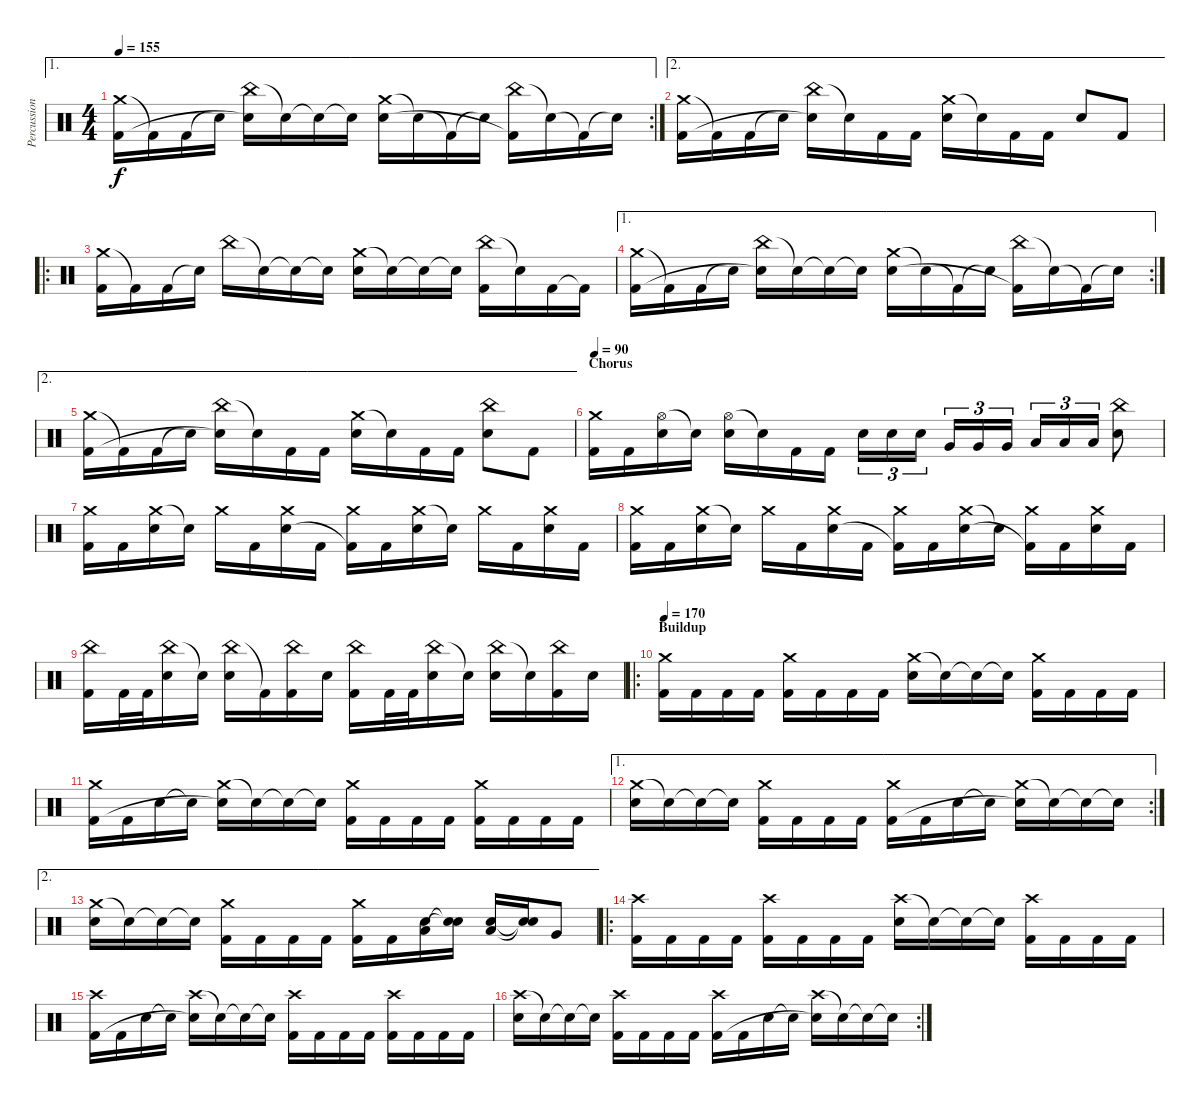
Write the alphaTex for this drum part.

\track ("Percussion" "Percussion") {instrument percussion}
\staff {score}
\articulation defaults
\ae 1
\rc 2
\ts (4 4)
\tempo 155
\clef neutral
\ks c
("Crash medium (hit)" "Kick (hit) 2").16{dy f} "Kick (hit) 2"{t}.16 "Kick (hit) 2".16 "Snare (hit)"{t}.16 ("China (hit)" "Snare (hit)"{t}).16 "Snare (hit)"{t}.16 "Snare (hit)"{t}.16 "Snare (hit)"{t}.16 ("Crash medium (hit)" "Electric Snare (hit)").16 "Snare (hit)"{t}.16 "Kick (hit) 2"{t}.16 "Snare (hit)"{t}.16 ("China (hit)" "Kick (hit) 2"{t}).16 "Snare (hit)"{t}.16 "Kick (hit) 2"{t}.16 "Snare (hit)"{t}.16 |
\ae 2
("Crash medium (hit)" "Kick (hit) 2").16 "Kick (hit) 2"{t}.16 "Kick (hit) 2".16 "Snare (hit)"{t}.16 ("China (hit)" "Snare (hit)"{t}).16 "Snare (hit)"{t}.16 "Kick (hit) 2".16 "Kick (hit) 2".16 ("Crash medium (hit)" "Electric Snare (hit)").16 "Snare (hit)"{t}.16 "Kick (hit) 2".16 "Kick (hit) 2".16 "Electric Snare (hit)".8 "Kick (hit) 2".8 |
\ro
("Crash medium (hit)" "Kick (hit) 2").16 "Kick (hit) 2"{t}.16 "Kick (hit) 2".16 "Snare (hit)"{t}.16 "China (hit)".16 "Snare (hit)"{t}.16 "Electric Snare (hit)"{t}.16 "Electric Snare (hit)"{t}.16 ("Crash medium (hit)" "Electric Snare (hit)").16 "Snare (hit)"{t}.16 "Snare (hit)"{t}.16 "Snare (hit)"{t}.16 ("China (hit)" "Kick (hit) 2").16 "Snare (hit)"{t}.16 "Kick (hit) 2".16 "Kick (hit) 2"{t}.16 |
\ae 1
\rc 2
("Crash medium (hit)" "Kick (hit) 2").16 "Kick (hit) 2"{t}.16 "Kick (hit) 2".16 "Snare (hit)"{t}.16 ("China (hit)" "Snare (hit)"{t}).16 "Snare (hit)"{t}.16 "Snare (hit)"{t}.16 "Snare (hit)"{t}.16 ("Crash medium (hit)" "Electric Snare (hit)").16 "Snare (hit)"{t}.16 "Kick (hit) 2"{t}.16 "Snare (hit)"{t}.16 ("China (hit)" "Kick (hit) 2"{t}).16 "Snare (hit)"{t}.16 "Kick (hit) 2"{t}.16 "Snare (hit)"{t}.16 |
\ae 2
("Crash medium (hit)" "Kick (hit) 2").16 "Kick (hit) 2"{t}.16 "Kick (hit) 2".16 "Snare (hit)"{t}.16 ("China (hit)" "Snare (hit)"{t}).16 "Snare (hit)"{t}.16 "Kick (hit) 2".16 "Kick (hit) 2".16 ("Crash medium (hit)" "Electric Snare (hit)").16 "Snare (hit)"{t}.16 "Kick (hit) 2".16 "Kick (hit) 2".16 ("China (hit)" "Electric Snare (hit)").8 "Kick (hit) 2".8 |
\section ("" "Chorus")
\tempo 90
("Crash medium (hit)" "Kick (hit) 2").16 "Kick (hit) 2".16 ("Hi-Hat (open)" "Electric Snare (hit)").16 "Snare (hit)"{t}.16 ("Hi-Hat (open)" "Electric Snare (hit)").16 "Snare (hit)"{t}.16 "Kick (hit) 2".16 "Kick (hit) 2".16 "Electric Snare (hit)".16{tu (3 2)} "Electric Snare (hit)".16{tu (3 2)} "Electric Snare (hit)".16{tu (3 2)} "Very Low Tom (hit)".16{tu (3 2)} "Very Low Tom (hit)".16{tu (3 2)} "Very Low Tom (hit)".16{tu (3 2)} "Low Floor Tom (hit)".16{tu (3 2)} "Low Floor Tom (hit)".16{tu (3 2)} "Low Floor Tom (hit)".16{tu (3 2)} ("China (hit)" "Electric Snare (hit)").8 |
("Crash medium (hit)" "Kick (hit) 2").16 "Kick (hit) 2".16 ("Crash medium (hit)" "Electric Snare (hit)").16 "Snare (hit)"{t}.16 "Crash medium (hit)".16 "Kick (hit) 2".16 ("Crash medium (hit)" "Electric Snare (hit)").16 "Kick (hit) 2".16 ("Crash medium (hit)" "Kick (hit) 2"{t}).16 "Kick (hit) 2".16 ("Crash medium (hit)" "Electric Snare (hit)").16 "Snare (hit)"{t}.16 "Crash medium (hit)".16 "Kick (hit) 2".16 ("Crash medium (hit)" "Electric Snare (hit)").16 "Kick (hit) 2".16 |
("Crash medium (hit)" "Kick (hit) 2").16 "Kick (hit) 2".16 ("Crash medium (hit)" "Electric Snare (hit)").16 "Snare (hit)"{t}.16 "Crash medium (hit)".16 "Kick (hit) 2".16 ("Crash medium (hit)" "Electric Snare (hit)").16 "Kick (hit) 2".16 ("Crash medium (hit)" "Kick (hit) 2"{t}).16 "Kick (hit) 2".16 ("Crash medium (hit)" "Electric Snare (hit)").16 "Snare (hit)"{t}.16 ("Crash medium (hit)" "Kick (hit) 2"{t}).16 "Kick (hit) 2".16 ("Crash medium (hit)" "Electric Snare (hit)").16 "Kick (hit) 2".16 |
("China (hit)" "Kick (hit) 2").16 "Kick (hit) 2".32 "Kick (hit) 2".32 ("China (hit)" "Electric Snare (hit)").16 "Snare (hit)"{t}.16 ("China (hit)" "Electric Snare (hit)").16 "Kick (hit) 2"{t}.16 ("China (hit)" "Kick (hit) 2").16 "Electric Snare (hit)".16 ("China (hit)" "Kick (hit) 2").16 "Kick (hit) 2".32 "Kick (hit) 2".32 ("China (hit)" "Electric Snare (hit)").16 "Snare (hit)"{t}.16 ("China (hit)" "Electric Snare (hit)").16 "Snare (hit)"{t}.16 ("China (hit)" "Kick (hit) 2").16 "Electric Snare (hit)".16 |
\ro
\section ("" "Buildup")
\tempo 170
("Crash medium (hit)" "Kick (hit) 2").16 "Kick (hit) 2".16 "Kick (hit) 2".16 "Kick (hit) 2".16 ("Crash medium (hit)" "Kick (hit) 2").16 "Kick (hit) 2".16 "Kick (hit) 2".16 "Kick (hit) 2".16 ("Crash medium (hit)" "Electric Snare (hit)").16 "Snare (hit)"{t}.16 "Snare (hit)"{t}.16 "Snare (hit)"{t}.16 ("Crash medium (hit)" "Kick (hit) 2").16 "Kick (hit) 2".16 "Kick (hit) 2".16 "Kick (hit) 2".16 |
("Crash medium (hit)" "Kick (hit) 2").16 "Kick (hit) 2".16 "Electric Snare (hit)".16 "Snare (hit)"{t}.16 ("Crash medium (hit)" "Snare (hit)"{t}).16 "Snare (hit)"{t}.16 "Snare (hit)"{t}.16 "Snare (hit)"{t}.16 ("Crash medium (hit)" "Kick (hit) 2").16 "Kick (hit) 2".16 "Kick (hit) 2".16 "Kick (hit) 2".16 ("Crash medium (hit)" "Kick (hit) 2").16 "Kick (hit) 2".16 "Kick (hit) 2".16 "Kick (hit) 2".16 |
\ae 1
\rc 2
("Crash medium (hit)" "Electric Snare (hit)").16 "Snare (hit)"{t}.16 "Snare (hit)"{t}.16 "Snare (hit)"{t}.16 ("Crash medium (hit)" "Kick (hit) 2").16 "Kick (hit) 2".16 "Kick (hit) 2".16 "Kick (hit) 2".16 ("Crash medium (hit)" "Kick (hit) 2").16 "Kick (hit) 2".16 "Electric Snare (hit)".16 "Snare (hit)"{t}.16 ("Crash medium (hit)" "Snare (hit)"{t}).16 "Snare (hit)"{t}.16 "Snare (hit)"{t}.16 "Snare (hit)"{t}.16 |
\ae 2
("Crash medium (hit)" "Electric Snare (hit)").16 "Snare (hit)"{t}.16 "Snare (hit)"{t}.16 "Snare (hit)"{t}.16 ("Crash medium (hit)" "Kick (hit) 2").16 "Kick (hit) 2".16 "Kick (hit) 2".16 "Kick (hit) 2".16 ("Crash medium (hit)" "Kick (hit) 2").16 "Kick (hit) 2".16 ("Low Tom (hit)" "Electric Snare (hit)").16 ("Snare (hit)"{t} "Snare (hit)"{t}).16 ("Low Tom (hit)" "Electric Snare (hit)").16 ("Snare (hit)"{t} "Snare (hit)"{t}).16 "Very Low Tom (hit)".8 |
\ro
("Crash high (hit)" "Kick (hit) 2").16 "Kick (hit) 2".16 "Kick (hit) 2".16 "Kick (hit) 2".16 ("Crash high (hit)" "Kick (hit) 2").16 "Kick (hit) 2".16 "Kick (hit) 2".16 "Kick (hit) 2".16 ("Crash high (hit)" "Electric Snare (hit)").16 "Snare (hit)"{t}.16 "Snare (hit)"{t}.16 "Snare (hit)"{t}.16 ("Crash high (hit)" "Kick (hit) 2").16 "Kick (hit) 2".16 "Kick (hit) 2".16 "Kick (hit) 2".16 |
("Crash high (hit)" "Kick (hit) 2").16 "Kick (hit) 2".16 "Electric Snare (hit)".16 "Snare (hit)"{t}.16 ("Crash high (hit)" "Snare (hit)"{t}).16 "Snare (hit)"{t}.16 "Snare (hit)"{t}.16 "Snare (hit)"{t}.16 ("Crash high (hit)" "Kick (hit) 2").16 "Kick (hit) 2".16 "Kick (hit) 2".16 "Kick (hit) 2".16 ("Crash high (hit)" "Kick (hit) 2").16 "Kick (hit) 2".16 "Kick (hit) 2".16 "Kick (hit) 2".16 |
\rc 2
("Crash high (hit)" "Electric Snare (hit)").16 "Snare (hit)"{t}.16 "Snare (hit)"{t}.16 "Snare (hit)"{t}.16 ("Crash high (hit)" "Kick (hit) 2").16 "Kick (hit) 2".16 "Kick (hit) 2".16 "Kick (hit) 2".16 ("Crash high (hit)" "Kick (hit) 2").16 "Kick (hit) 2".16 "Electric Snare (hit)".16 "Snare (hit)"{t}.16 ("Crash high (hit)" "Snare (hit)"{t}).16 "Snare (hit)"{t}.16 "Snare (hit)"{t}.16 "Snare (hit)"{t}.16
